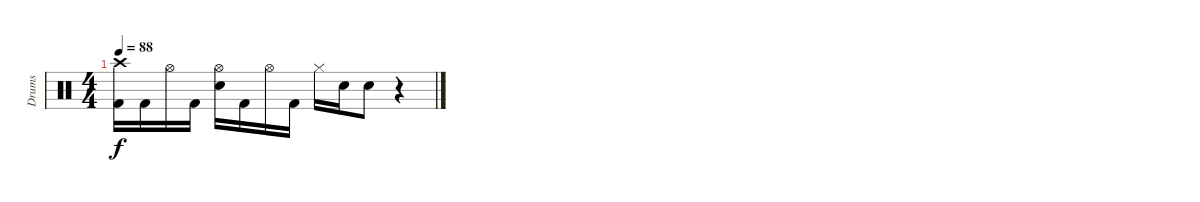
\track ("Drums" "Drums") {instrument percussion}
\staff {score}
\articulation defaults
\ts (4 4)
\tempo 88
\clef neutral
\ks c
("Crash high (hit)" "Kick (hit) 2").16{dy f} "Kick (hit) 2".16 "Hi-Hat (open)".16 "Kick (hit) 2".16 ("Hi-Hat (open)" "Snare (hit) 2").16 "Kick (hit) 2".16 "Hi-Hat (open)".16 "Kick (hit) 2".16 "Hi-Hat (closed)".16 "Snare (hit) 2".16 "Snare (hit) 2".8 r.4
